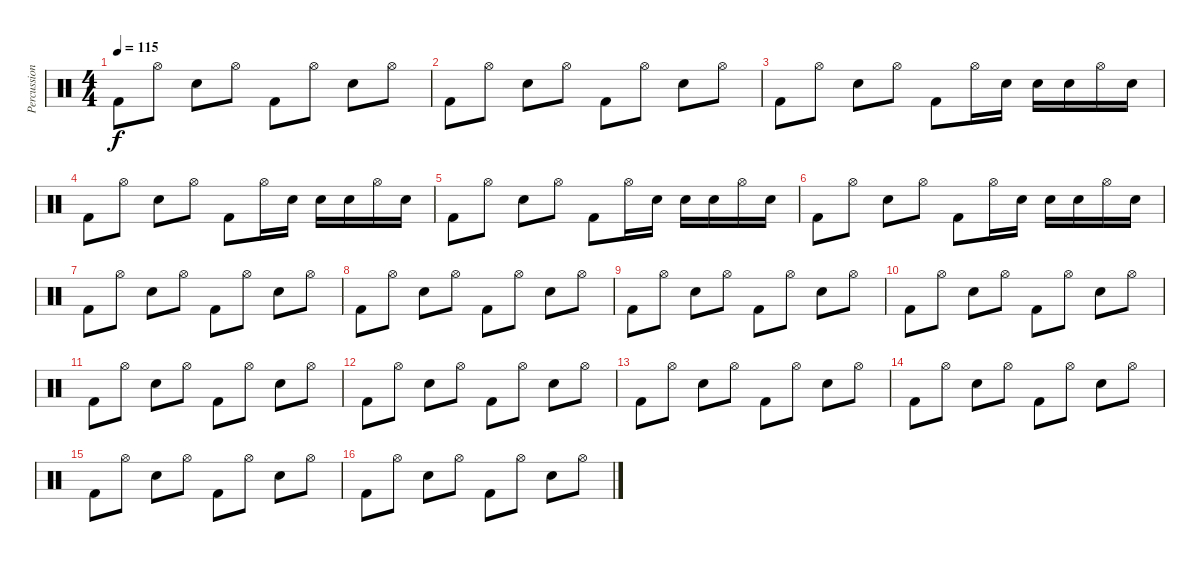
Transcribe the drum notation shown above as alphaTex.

\track ("Percussion" "Percussion") {instrument percussion}
\staff {score}
\articulation defaults
\ts (4 4)
\tempo 115
\clef neutral
\ks c "Kick (hit) 2".8{dy f} "Hi-Hat (open)".8 "Snare (hit) 2".8 "Hi-Hat (open)".8 "Kick (hit) 2".8 "Hi-Hat (open)".8 "Snare (hit) 2".8 "Hi-Hat (open)".8
|
"Kick (hit) 2".8 "Hi-Hat (open)".8 "Snare (hit) 2".8 "Hi-Hat (open)".8 "Kick (hit) 2".8 "Hi-Hat (open)".8 "Snare (hit) 2".8 "Hi-Hat (open)".8 |
"Kick (hit) 2".8 "Hi-Hat (open)".8 "Snare (hit) 2".8 "Hi-Hat (open)".8 "Kick (hit) 2".8 "Hi-Hat (open)".16 "Snare (hit) 2".16 "Snare (hit) 2".16 "Snare (hit) 2".16 "Hi-Hat (open)".16 "Snare (hit) 2".16 |
"Kick (hit) 2".8 "Hi-Hat (open)".8 "Snare (hit) 2".8 "Hi-Hat (open)".8 "Kick (hit) 2".8 "Hi-Hat (open)".16 "Snare (hit) 2".16 "Snare (hit) 2".16 "Snare (hit) 2".16 "Hi-Hat (open)".16 "Snare (hit) 2".16 |
"Kick (hit) 2".8 "Hi-Hat (open)".8 "Snare (hit) 2".8 "Hi-Hat (open)".8 "Kick (hit) 2".8 "Hi-Hat (open)".16 "Snare (hit) 2".16 "Snare (hit) 2".16 "Snare (hit) 2".16 "Hi-Hat (open)".16 "Snare (hit) 2".16 |
"Kick (hit) 2".8 "Hi-Hat (open)".8 "Snare (hit) 2".8 "Hi-Hat (open)".8 "Kick (hit) 2".8 "Hi-Hat (open)".16 "Snare (hit) 2".16 "Snare (hit) 2".16 "Snare (hit) 2".16 "Hi-Hat (open)".16 "Snare (hit) 2".16 |
"Kick (hit) 2".8 "Hi-Hat (open)".8 "Snare (hit) 2".8 "Hi-Hat (open)".8 "Kick (hit) 2".8 "Hi-Hat (open)".8 "Snare (hit) 2".8 "Hi-Hat (open)".8 |
"Kick (hit) 2".8 "Hi-Hat (open)".8 "Snare (hit) 2".8 "Hi-Hat (open)".8 "Kick (hit) 2".8 "Hi-Hat (open)".8 "Snare (hit) 2".8 "Hi-Hat (open)".8 |
"Kick (hit) 2".8 "Hi-Hat (open)".8 "Snare (hit) 2".8 "Hi-Hat (open)".8 "Kick (hit) 2".8 "Hi-Hat (open)".8 "Snare (hit) 2".8 "Hi-Hat (open)".8 |
"Kick (hit) 2".8 "Hi-Hat (open)".8 "Snare (hit) 2".8 "Hi-Hat (open)".8 "Kick (hit) 2".8 "Hi-Hat (open)".8 "Snare (hit) 2".8 "Hi-Hat (open)".8 |
"Kick (hit) 2".8 "Hi-Hat (open)".8 "Snare (hit) 2".8 "Hi-Hat (open)".8 "Kick (hit) 2".8 "Hi-Hat (open)".8 "Snare (hit) 2".8 "Hi-Hat (open)".8 |
"Kick (hit) 2".8 "Hi-Hat (open)".8 "Snare (hit) 2".8 "Hi-Hat (open)".8 "Kick (hit) 2".8 "Hi-Hat (open)".8 "Snare (hit) 2".8 "Hi-Hat (open)".8 |
"Kick (hit) 2".8 "Hi-Hat (open)".8 "Snare (hit) 2".8 "Hi-Hat (open)".8 "Kick (hit) 2".8 "Hi-Hat (open)".8 "Snare (hit) 2".8 "Hi-Hat (open)".8 |
"Kick (hit) 2".8 "Hi-Hat (open)".8 "Snare (hit) 2".8 "Hi-Hat (open)".8 "Kick (hit) 2".8 "Hi-Hat (open)".8 "Snare (hit) 2".8 "Hi-Hat (open)".8 |
"Kick (hit) 2".8 "Hi-Hat (open)".8 "Snare (hit) 2".8 "Hi-Hat (open)".8 "Kick (hit) 2".8 "Hi-Hat (open)".8 "Snare (hit) 2".8 "Hi-Hat (open)".8 |
"Kick (hit) 2".8 "Hi-Hat (open)".8 "Snare (hit) 2".8 "Hi-Hat (open)".8 "Kick (hit) 2".8 "Hi-Hat (open)".8 "Snare (hit) 2".8 "Hi-Hat (open)".8
